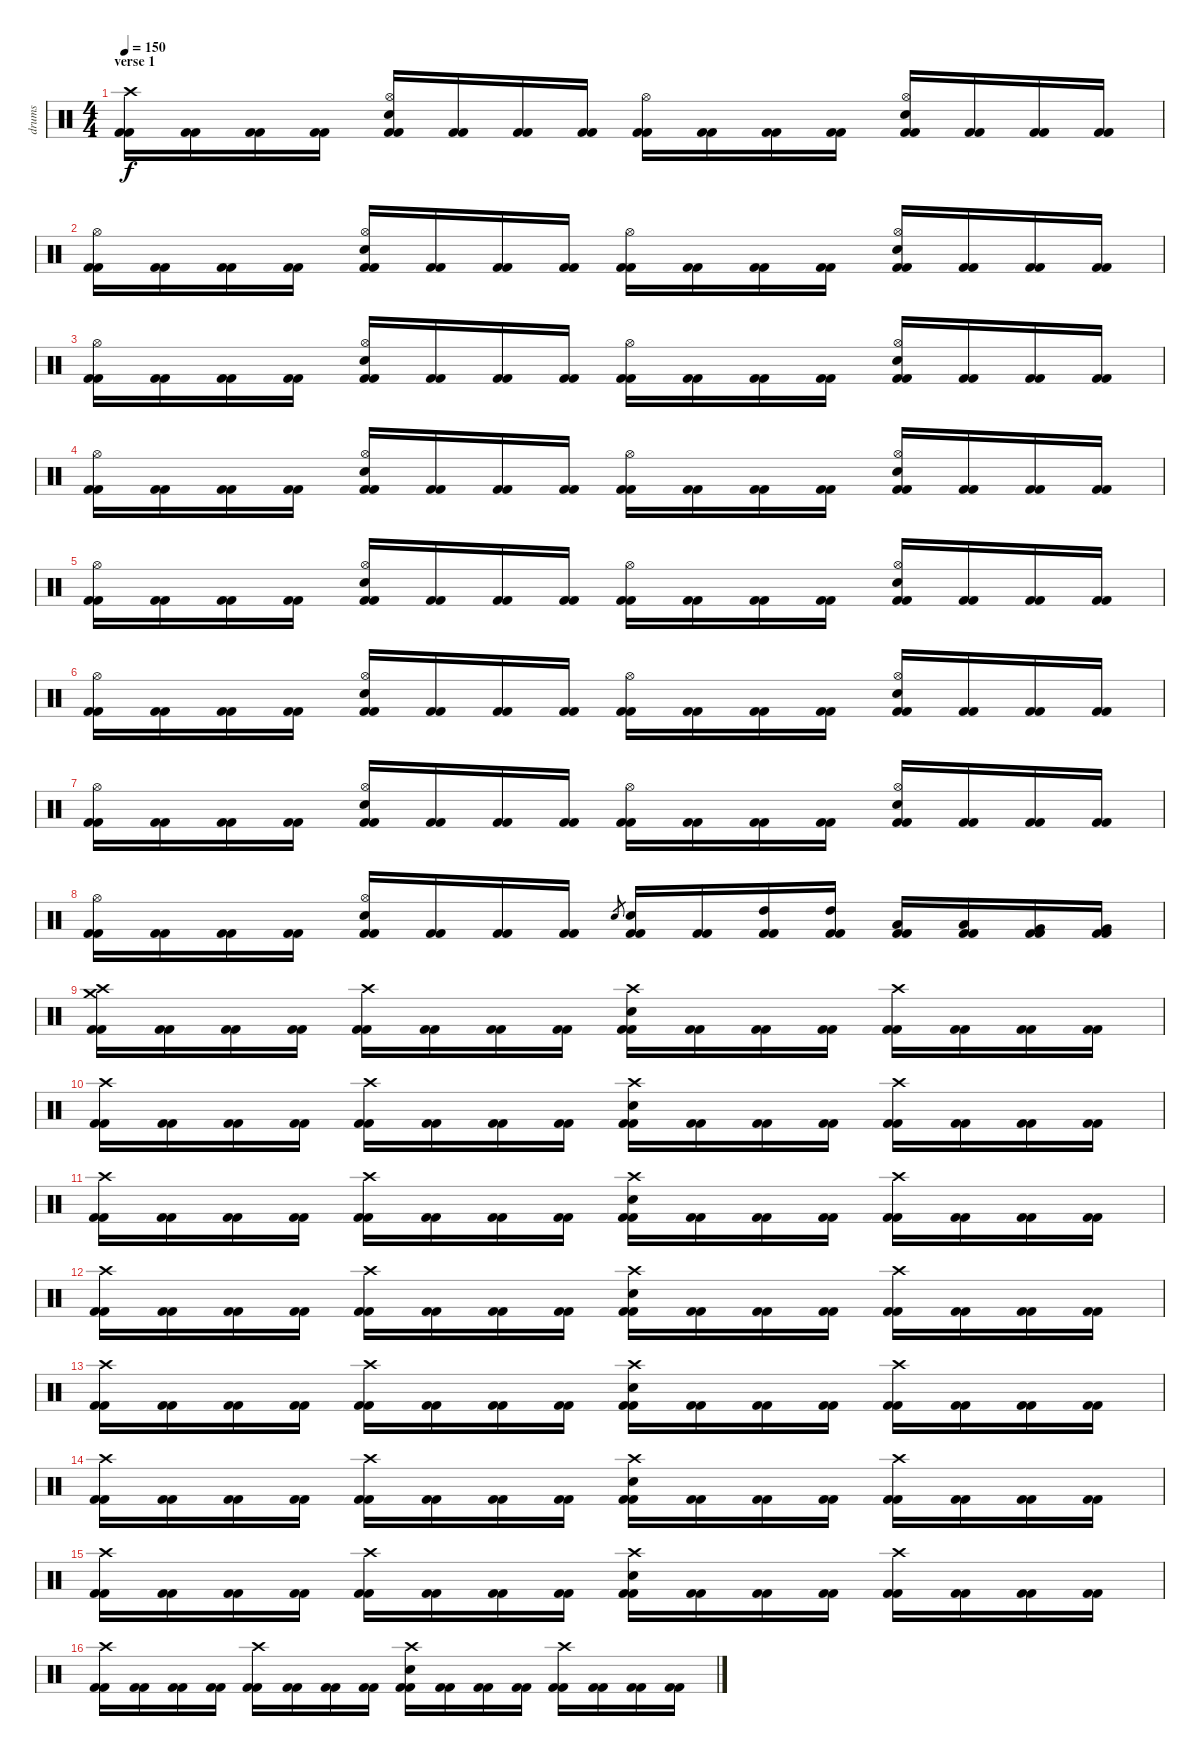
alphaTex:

\track ("drums" "drums") {instrument percussion}
\staff {score}
\articulation defaults
\ts (4 4)
\section ("" "verse 1")
\tempo 150
\clef neutral
\ks c
("Crash high (hit)" "Kick (hit) 2" "Kick (hit) 2").16{dy f} ("Kick (hit) 2" "Kick (hit) 2").16 ("Kick (hit) 2" "Kick (hit) 2").16 ("Kick (hit) 2" "Kick (hit) 2").16 ("Hi-Hat (open)" "Electric Snare (hit)" "Kick (hit) 2" "Kick (hit) 2").16 ("Kick (hit) 2" "Kick (hit) 2").16 ("Kick (hit) 2" "Kick (hit) 2").16 ("Kick (hit) 2" "Kick (hit) 2").16 ("Hi-Hat (open)" "Kick (hit) 2" "Kick (hit) 2").16 ("Kick (hit) 2" "Kick (hit) 2").16 ("Kick (hit) 2" "Kick (hit) 2").16 ("Kick (hit) 2" "Kick (hit) 2").16 ("Hi-Hat (open)" "Electric Snare (hit)" "Kick (hit) 2" "Kick (hit) 2").16 ("Kick (hit) 2" "Kick (hit) 2").16 ("Kick (hit) 2" "Kick (hit) 2").16 ("Kick (hit) 2" "Kick (hit) 2").16 |
("Hi-Hat (open)" "Kick (hit) 2" "Kick (hit) 2").16 ("Kick (hit) 2" "Kick (hit) 2").16 ("Kick (hit) 2" "Kick (hit) 2").16 ("Kick (hit) 2" "Kick (hit) 2").16 ("Hi-Hat (open)" "Electric Snare (hit)" "Kick (hit) 2" "Kick (hit) 2").16 ("Kick (hit) 2" "Kick (hit) 2").16 ("Kick (hit) 2" "Kick (hit) 2").16 ("Kick (hit) 2" "Kick (hit) 2").16 ("Hi-Hat (open)" "Kick (hit) 2" "Kick (hit) 2").16 ("Kick (hit) 2" "Kick (hit) 2").16 ("Kick (hit) 2" "Kick (hit) 2").16 ("Kick (hit) 2" "Kick (hit) 2").16 ("Hi-Hat (open)" "Electric Snare (hit)" "Kick (hit) 2" "Kick (hit) 2").16 ("Kick (hit) 2" "Kick (hit) 2").16 ("Kick (hit) 2" "Kick (hit) 2").16 ("Kick (hit) 2" "Kick (hit) 2").16 |
("Hi-Hat (open)" "Kick (hit) 2" "Kick (hit) 2").16 ("Kick (hit) 2" "Kick (hit) 2").16 ("Kick (hit) 2" "Kick (hit) 2").16 ("Kick (hit) 2" "Kick (hit) 2").16 ("Hi-Hat (open)" "Electric Snare (hit)" "Kick (hit) 2" "Kick (hit) 2").16 ("Kick (hit) 2" "Kick (hit) 2").16 ("Kick (hit) 2" "Kick (hit) 2").16 ("Kick (hit) 2" "Kick (hit) 2").16 ("Hi-Hat (open)" "Kick (hit) 2" "Kick (hit) 2").16 ("Kick (hit) 2" "Kick (hit) 2").16 ("Kick (hit) 2" "Kick (hit) 2").16 ("Kick (hit) 2" "Kick (hit) 2").16 ("Hi-Hat (open)" "Electric Snare (hit)" "Kick (hit) 2" "Kick (hit) 2").16 ("Kick (hit) 2" "Kick (hit) 2").16 ("Kick (hit) 2" "Kick (hit) 2").16 ("Kick (hit) 2" "Kick (hit) 2").16 |
("Hi-Hat (open)" "Kick (hit) 2" "Kick (hit) 2").16 ("Kick (hit) 2" "Kick (hit) 2").16 ("Kick (hit) 2" "Kick (hit) 2").16 ("Kick (hit) 2" "Kick (hit) 2").16 ("Hi-Hat (open)" "Electric Snare (hit)" "Kick (hit) 2" "Kick (hit) 2").16 ("Kick (hit) 2" "Kick (hit) 2").16 ("Kick (hit) 2" "Kick (hit) 2").16 ("Kick (hit) 2" "Kick (hit) 2").16 ("Hi-Hat (open)" "Kick (hit) 2" "Kick (hit) 2").16 ("Kick (hit) 2" "Kick (hit) 2").16 ("Kick (hit) 2" "Kick (hit) 2").16 ("Kick (hit) 2" "Kick (hit) 2").16 ("Hi-Hat (open)" "Electric Snare (hit)" "Kick (hit) 2" "Kick (hit) 2").16 ("Kick (hit) 2" "Kick (hit) 2").16 ("Kick (hit) 2" "Kick (hit) 2").16 ("Kick (hit) 2" "Kick (hit) 2").16 |
("Hi-Hat (open)" "Kick (hit) 2" "Kick (hit) 2").16 ("Kick (hit) 2" "Kick (hit) 2").16 ("Kick (hit) 2" "Kick (hit) 2").16 ("Kick (hit) 2" "Kick (hit) 2").16 ("Hi-Hat (open)" "Electric Snare (hit)" "Kick (hit) 2" "Kick (hit) 2").16 ("Kick (hit) 2" "Kick (hit) 2").16 ("Kick (hit) 2" "Kick (hit) 2").16 ("Kick (hit) 2" "Kick (hit) 2").16 ("Hi-Hat (open)" "Kick (hit) 2" "Kick (hit) 2").16 ("Kick (hit) 2" "Kick (hit) 2").16 ("Kick (hit) 2" "Kick (hit) 2").16 ("Kick (hit) 2" "Kick (hit) 2").16 ("Hi-Hat (open)" "Electric Snare (hit)" "Kick (hit) 2" "Kick (hit) 2").16 ("Kick (hit) 2" "Kick (hit) 2").16 ("Kick (hit) 2" "Kick (hit) 2").16 ("Kick (hit) 2" "Kick (hit) 2").16 |
("Hi-Hat (open)" "Kick (hit) 2" "Kick (hit) 2").16 ("Kick (hit) 2" "Kick (hit) 2").16 ("Kick (hit) 2" "Kick (hit) 2").16 ("Kick (hit) 2" "Kick (hit) 2").16 ("Hi-Hat (open)" "Electric Snare (hit)" "Kick (hit) 2" "Kick (hit) 2").16 ("Kick (hit) 2" "Kick (hit) 2").16 ("Kick (hit) 2" "Kick (hit) 2").16 ("Kick (hit) 2" "Kick (hit) 2").16 ("Hi-Hat (open)" "Kick (hit) 2" "Kick (hit) 2").16 ("Kick (hit) 2" "Kick (hit) 2").16 ("Kick (hit) 2" "Kick (hit) 2").16 ("Kick (hit) 2" "Kick (hit) 2").16 ("Hi-Hat (open)" "Electric Snare (hit)" "Kick (hit) 2" "Kick (hit) 2").16 ("Kick (hit) 2" "Kick (hit) 2").16 ("Kick (hit) 2" "Kick (hit) 2").16 ("Kick (hit) 2" "Kick (hit) 2").16 |
("Hi-Hat (open)" "Kick (hit) 2" "Kick (hit) 2").16 ("Kick (hit) 2" "Kick (hit) 2").16 ("Kick (hit) 2" "Kick (hit) 2").16 ("Kick (hit) 2" "Kick (hit) 2").16 ("Hi-Hat (open)" "Electric Snare (hit)" "Kick (hit) 2" "Kick (hit) 2").16 ("Kick (hit) 2" "Kick (hit) 2").16 ("Kick (hit) 2" "Kick (hit) 2").16 ("Kick (hit) 2" "Kick (hit) 2").16 ("Hi-Hat (open)" "Kick (hit) 2" "Kick (hit) 2").16 ("Kick (hit) 2" "Kick (hit) 2").16 ("Kick (hit) 2" "Kick (hit) 2").16 ("Kick (hit) 2" "Kick (hit) 2").16 ("Hi-Hat (open)" "Electric Snare (hit)" "Kick (hit) 2" "Kick (hit) 2").16 ("Kick (hit) 2" "Kick (hit) 2").16 ("Kick (hit) 2" "Kick (hit) 2").16 ("Kick (hit) 2" "Kick (hit) 2").16 |
("Hi-Hat (open)" "Kick (hit) 2" "Kick (hit) 2").16 ("Kick (hit) 2" "Kick (hit) 2").16 ("Kick (hit) 2" "Kick (hit) 2").16 ("Kick (hit) 2" "Kick (hit) 2").16 ("Hi-Hat (open)" "Electric Snare (hit)" "Kick (hit) 2" "Kick (hit) 2").16 ("Kick (hit) 2" "Kick (hit) 2").16 ("Kick (hit) 2" "Kick (hit) 2").16 ("Kick (hit) 2" "Kick (hit) 2").16 "Electric Snare (hit)".8{gr} ("Electric Snare (hit)" "Kick (hit) 2" "Kick (hit) 2").16 ("Kick (hit) 2" "Kick (hit) 2").16 ("High Tom (hit)" "Kick (hit) 2" "Kick (hit) 2").16 ("High Tom (hit)" "Kick (hit) 2" "Kick (hit) 2").16 ("Low Tom (hit)" "Kick (hit) 2" "Kick (hit) 2").16 ("Low Tom (hit)" "Kick (hit) 2" "Kick (hit) 2").16 ("Very Low Tom (hit)" "Kick (hit) 2" "Kick (hit) 2").16 ("Very Low Tom (hit)" "Kick (hit) 2" "Kick (hit) 2").16 |
\section ("" "")
("Crash high (hit)" "Crash medium (hit)" "Kick (hit) 2" "Kick (hit) 2").16 ("Kick (hit) 2" "Kick (hit) 2").16 ("Kick (hit) 2" "Kick (hit) 2").16 ("Kick (hit) 2" "Kick (hit) 2").16 ("Crash high (hit)" "Kick (hit) 2" "Kick (hit) 2").16 ("Kick (hit) 2" "Kick (hit) 2").16 ("Kick (hit) 2" "Kick (hit) 2").16 ("Kick (hit) 2" "Kick (hit) 2").16 ("Crash high (hit)" "Electric Snare (hit)" "Kick (hit) 2" "Kick (hit) 2").16 ("Kick (hit) 2" "Kick (hit) 2").16 ("Kick (hit) 2" "Kick (hit) 2").16 ("Kick (hit) 2" "Kick (hit) 2").16 ("Crash high (hit)" "Kick (hit) 2" "Kick (hit) 2").16 ("Kick (hit) 2" "Kick (hit) 2").16 ("Kick (hit) 2" "Kick (hit) 2").16 ("Kick (hit) 2" "Kick (hit) 2").16 |
("Crash high (hit)" "Kick (hit) 2" "Kick (hit) 2").16 ("Kick (hit) 2" "Kick (hit) 2").16 ("Kick (hit) 2" "Kick (hit) 2").16 ("Kick (hit) 2" "Kick (hit) 2").16 ("Crash high (hit)" "Kick (hit) 2" "Kick (hit) 2").16 ("Kick (hit) 2" "Kick (hit) 2").16 ("Kick (hit) 2" "Kick (hit) 2").16 ("Kick (hit) 2" "Kick (hit) 2").16 ("Crash high (hit)" "Electric Snare (hit)" "Kick (hit) 2" "Kick (hit) 2").16 ("Kick (hit) 2" "Kick (hit) 2").16 ("Kick (hit) 2" "Kick (hit) 2").16 ("Kick (hit) 2" "Kick (hit) 2").16 ("Crash high (hit)" "Kick (hit) 2" "Kick (hit) 2").16 ("Kick (hit) 2" "Kick (hit) 2").16 ("Kick (hit) 2" "Kick (hit) 2").16 ("Kick (hit) 2" "Kick (hit) 2").16 |
("Crash high (hit)" "Kick (hit) 2" "Kick (hit) 2").16 ("Kick (hit) 2" "Kick (hit) 2").16 ("Kick (hit) 2" "Kick (hit) 2").16 ("Kick (hit) 2" "Kick (hit) 2").16 ("Crash high (hit)" "Kick (hit) 2" "Kick (hit) 2").16 ("Kick (hit) 2" "Kick (hit) 2").16 ("Kick (hit) 2" "Kick (hit) 2").16 ("Kick (hit) 2" "Kick (hit) 2").16 ("Crash high (hit)" "Electric Snare (hit)" "Kick (hit) 2" "Kick (hit) 2").16 ("Kick (hit) 2" "Kick (hit) 2").16 ("Kick (hit) 2" "Kick (hit) 2").16 ("Kick (hit) 2" "Kick (hit) 2").16 ("Crash high (hit)" "Kick (hit) 2" "Kick (hit) 2").16 ("Kick (hit) 2" "Kick (hit) 2").16 ("Kick (hit) 2" "Kick (hit) 2").16 ("Kick (hit) 2" "Kick (hit) 2").16 |
("Crash high (hit)" "Kick (hit) 2" "Kick (hit) 2").16 ("Kick (hit) 2" "Kick (hit) 2").16 ("Kick (hit) 2" "Kick (hit) 2").16 ("Kick (hit) 2" "Kick (hit) 2").16 ("Crash high (hit)" "Kick (hit) 2" "Kick (hit) 2").16 ("Kick (hit) 2" "Kick (hit) 2").16 ("Kick (hit) 2" "Kick (hit) 2").16 ("Kick (hit) 2" "Kick (hit) 2").16 ("Crash high (hit)" "Electric Snare (hit)" "Kick (hit) 2" "Kick (hit) 2").16 ("Kick (hit) 2" "Kick (hit) 2").16 ("Kick (hit) 2" "Kick (hit) 2").16 ("Kick (hit) 2" "Kick (hit) 2").16 ("Crash high (hit)" "Kick (hit) 2" "Kick (hit) 2").16 ("Kick (hit) 2" "Kick (hit) 2").16 ("Kick (hit) 2" "Kick (hit) 2").16 ("Kick (hit) 2" "Kick (hit) 2").16 |
("Crash high (hit)" "Kick (hit) 2" "Kick (hit) 2").16 ("Kick (hit) 2" "Kick (hit) 2").16 ("Kick (hit) 2" "Kick (hit) 2").16 ("Kick (hit) 2" "Kick (hit) 2").16 ("Crash high (hit)" "Kick (hit) 2" "Kick (hit) 2").16 ("Kick (hit) 2" "Kick (hit) 2").16 ("Kick (hit) 2" "Kick (hit) 2").16 ("Kick (hit) 2" "Kick (hit) 2").16 ("Crash high (hit)" "Electric Snare (hit)" "Kick (hit) 2" "Kick (hit) 2").16 ("Kick (hit) 2" "Kick (hit) 2").16 ("Kick (hit) 2" "Kick (hit) 2").16 ("Kick (hit) 2" "Kick (hit) 2").16 ("Crash high (hit)" "Kick (hit) 2" "Kick (hit) 2").16 ("Kick (hit) 2" "Kick (hit) 2").16 ("Kick (hit) 2" "Kick (hit) 2").16 ("Kick (hit) 2" "Kick (hit) 2").16 |
("Crash high (hit)" "Kick (hit) 2" "Kick (hit) 2").16 ("Kick (hit) 2" "Kick (hit) 2").16 ("Kick (hit) 2" "Kick (hit) 2").16 ("Kick (hit) 2" "Kick (hit) 2").16 ("Crash high (hit)" "Kick (hit) 2" "Kick (hit) 2").16 ("Kick (hit) 2" "Kick (hit) 2").16 ("Kick (hit) 2" "Kick (hit) 2").16 ("Kick (hit) 2" "Kick (hit) 2").16 ("Crash high (hit)" "Electric Snare (hit)" "Kick (hit) 2" "Kick (hit) 2").16 ("Kick (hit) 2" "Kick (hit) 2").16 ("Kick (hit) 2" "Kick (hit) 2").16 ("Kick (hit) 2" "Kick (hit) 2").16 ("Crash high (hit)" "Kick (hit) 2" "Kick (hit) 2").16 ("Kick (hit) 2" "Kick (hit) 2").16 ("Kick (hit) 2" "Kick (hit) 2").16 ("Kick (hit) 2" "Kick (hit) 2").16 |
("Crash high (hit)" "Kick (hit) 2" "Kick (hit) 2").16 ("Kick (hit) 2" "Kick (hit) 2").16 ("Kick (hit) 2" "Kick (hit) 2").16 ("Kick (hit) 2" "Kick (hit) 2").16 ("Crash high (hit)" "Kick (hit) 2" "Kick (hit) 2").16 ("Kick (hit) 2" "Kick (hit) 2").16 ("Kick (hit) 2" "Kick (hit) 2").16 ("Kick (hit) 2" "Kick (hit) 2").16 ("Crash high (hit)" "Electric Snare (hit)" "Kick (hit) 2" "Kick (hit) 2").16 ("Kick (hit) 2" "Kick (hit) 2").16 ("Kick (hit) 2" "Kick (hit) 2").16 ("Kick (hit) 2" "Kick (hit) 2").16 ("Crash high (hit)" "Kick (hit) 2" "Kick (hit) 2").16 ("Kick (hit) 2" "Kick (hit) 2").16 ("Kick (hit) 2" "Kick (hit) 2").16 ("Kick (hit) 2" "Kick (hit) 2").16 |
("Crash high (hit)" "Kick (hit) 2" "Kick (hit) 2").16 ("Kick (hit) 2" "Kick (hit) 2").16 ("Kick (hit) 2" "Kick (hit) 2").16 ("Kick (hit) 2" "Kick (hit) 2").16 ("Crash high (hit)" "Kick (hit) 2" "Kick (hit) 2").16 ("Kick (hit) 2" "Kick (hit) 2").16 ("Kick (hit) 2" "Kick (hit) 2").16 ("Kick (hit) 2" "Kick (hit) 2").16 ("Crash high (hit)" "Electric Snare (hit)" "Kick (hit) 2" "Kick (hit) 2").16 ("Kick (hit) 2" "Kick (hit) 2").16 ("Kick (hit) 2" "Kick (hit) 2").16 ("Kick (hit) 2" "Kick (hit) 2").16 ("Crash high (hit)" "Kick (hit) 2" "Kick (hit) 2").16 ("Kick (hit) 2" "Kick (hit) 2").16 ("Kick (hit) 2" "Kick (hit) 2").16 ("Kick (hit) 2" "Kick (hit) 2").16
